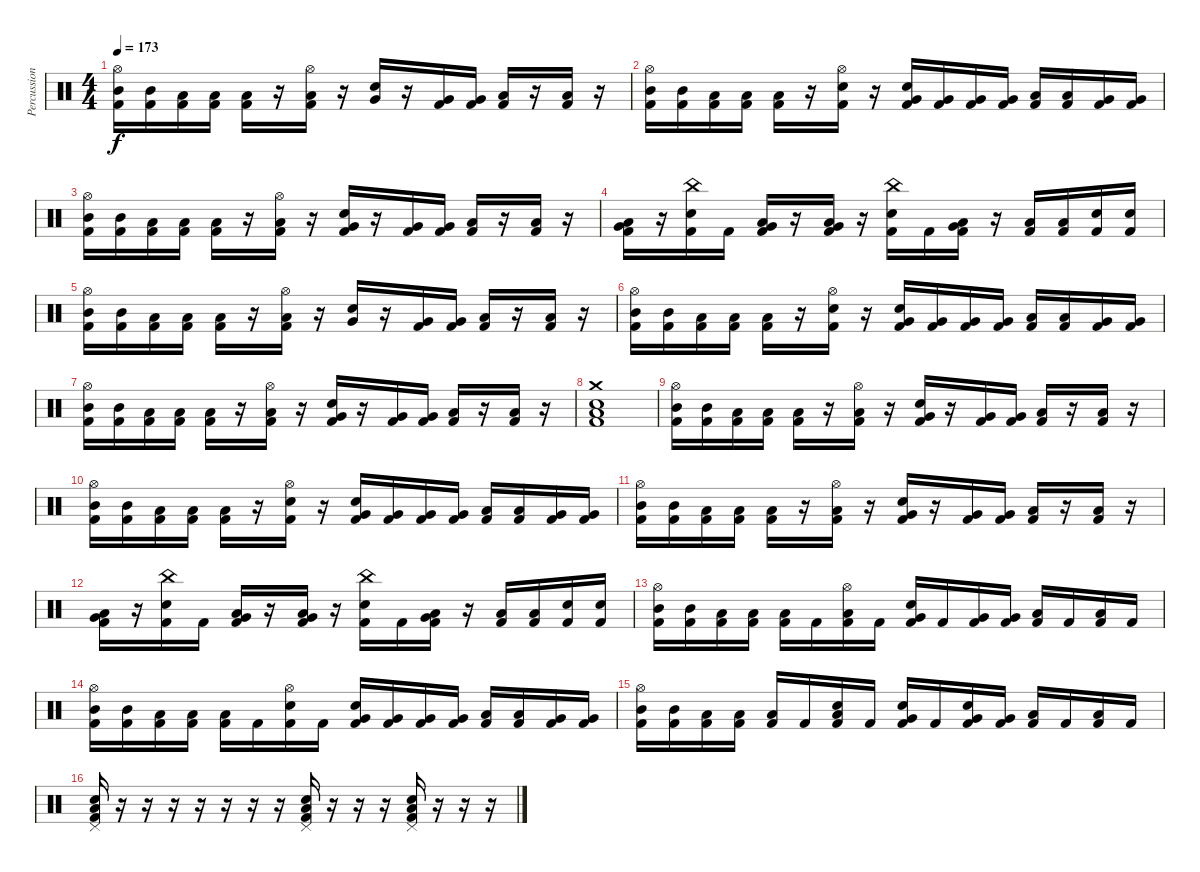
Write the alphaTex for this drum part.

\track ("Percussion" "Percussion") {instrument percussion}
\staff {score}
\articulation defaults
\ts (4 4)
\tempo 173
\clef neutral
\ks c
("Hi-Hat (open)" "Mid Tom (hit)" "Kick (hit) 2").16{dy f} ("Mid Tom (hit)" "Kick (hit) 2").16 ("Low Tom (hit)" "Kick (hit) 2").16 ("Low Tom (hit)" "Kick (hit) 2").16 ("Low Tom (hit)" "Kick (hit) 2").16 r.16 ("Hi-Hat (open)" "Low Tom (hit)" "Kick (hit) 2").16 r.16 ("Electric Snare (hit)" "Very Low Tom (hit)").16 r.16 ("Very Low Tom (hit)" "Kick (hit) 2").16 ("Very Low Tom (hit)" "Kick (hit) 2").16 ("Low Floor Tom (hit)" "Kick (hit) 2").16 r.16 ("Low Floor Tom (hit)" "Kick (hit) 2").16 r.16 |
("Hi-Hat (open)" "Mid Tom (hit)" "Kick (hit) 2").16 ("Mid Tom (hit)" "Kick (hit) 2").16 ("Low Tom (hit)" "Kick (hit) 2").16 ("Low Tom (hit)" "Kick (hit) 2").16 ("Low Tom (hit)" "Kick (hit) 2").16 r.16 ("Hi-Hat (open)" "Electric Snare (hit)" "Kick (hit) 2").16 r.16 ("Electric Snare (hit)" "Very Low Tom (hit)" "Kick (hit) 2").16 ("Very Low Tom (hit)" "Kick (hit) 2").16 ("Very Low Tom (hit)" "Kick (hit) 2").16 ("Very Low Tom (hit)" "Kick (hit) 2").16 ("Low Tom (hit)" "Kick (hit) 2").16 ("Low Tom (hit)" "Kick (hit) 2").16 ("Very Low Tom (hit)" "Kick (hit) 2").16 ("Very Low Tom (hit)" "Kick (hit) 2").16 |
("Hi-Hat (open)" "Mid Tom (hit)" "Kick (hit) 2").16 ("Mid Tom (hit)" "Kick (hit) 2").16 ("Low Tom (hit)" "Kick (hit) 2").16 ("Low Tom (hit)" "Kick (hit) 2").16 ("Low Tom (hit)" "Kick (hit) 2").16 r.16 ("Hi-Hat (open)" "Low Tom (hit)" "Kick (hit) 2").16 r.16 ("Electric Snare (hit)" "Very Low Tom (hit)" "Kick (hit) 2").16 r.16 ("Very Low Tom (hit)" "Kick (hit) 2").16 ("Very Low Tom (hit)" "Kick (hit) 2").16 ("Low Floor Tom (hit)" "Kick (hit) 2").16 r.16 ("Low Floor Tom (hit)" "Kick (hit) 2").16 r.16 |
("Very Low Tom (hit)" "Low Floor Tom (hit)" "Kick (hit) 2").16 r.16 ("China (hit)" "Electric Snare (hit)" "Kick (hit) 2").16 "Kick (hit) 2".16 ("Very Low Tom (hit)" "Low Floor Tom (hit)" "Kick (hit) 2").16 r.16 ("Very Low Tom (hit)" "Low Floor Tom (hit)" "Kick (hit) 2").16 r.16 ("China (hit)" "Electric Snare (hit)" "Kick (hit) 2").16 "Kick (hit) 2".16 ("Very Low Tom (hit)" "Low Floor Tom (hit)" "Kick (hit) 2").16 r.16 ("Low Floor Tom (hit)" "Kick (hit) 2").16 ("Low Floor Tom (hit)" "Kick (hit) 2").16 ("Electric Snare (hit)" "Kick (hit) 2").16 ("Electric Snare (hit)" "Kick (hit) 2").16 |
("Hi-Hat (open)" "Mid Tom (hit)" "Kick (hit) 2").16 ("Mid Tom (hit)" "Kick (hit) 2").16 ("Low Tom (hit)" "Kick (hit) 2").16 ("Low Tom (hit)" "Kick (hit) 2").16 ("Low Tom (hit)" "Kick (hit) 2").16 r.16 ("Hi-Hat (open)" "Low Tom (hit)" "Kick (hit) 2").16 r.16 ("Electric Snare (hit)" "Very Low Tom (hit)").16 r.16 ("Very Low Tom (hit)" "Kick (hit) 2").16 ("Very Low Tom (hit)" "Kick (hit) 2").16 ("Low Floor Tom (hit)" "Kick (hit) 2").16 r.16 ("Low Floor Tom (hit)" "Kick (hit) 2").16 r.16 |
("Hi-Hat (open)" "Mid Tom (hit)" "Kick (hit) 2").16 ("Mid Tom (hit)" "Kick (hit) 2").16 ("Low Tom (hit)" "Kick (hit) 2").16 ("Low Tom (hit)" "Kick (hit) 2").16 ("Low Tom (hit)" "Kick (hit) 2").16 r.16 ("Hi-Hat (open)" "Electric Snare (hit)" "Kick (hit) 2").16 r.16 ("Electric Snare (hit)" "Very Low Tom (hit)" "Kick (hit) 2").16 ("Very Low Tom (hit)" "Kick (hit) 2").16 ("Very Low Tom (hit)" "Kick (hit) 2").16 ("Very Low Tom (hit)" "Kick (hit) 2").16 ("Low Tom (hit)" "Kick (hit) 2").16 ("Low Tom (hit)" "Kick (hit) 2").16 ("Very Low Tom (hit)" "Kick (hit) 2").16 ("Very Low Tom (hit)" "Kick (hit) 2").16 |
("Hi-Hat (open)" "Mid Tom (hit)" "Kick (hit) 2").16 ("Mid Tom (hit)" "Kick (hit) 2").16 ("Low Tom (hit)" "Kick (hit) 2").16 ("Low Tom (hit)" "Kick (hit) 2").16 ("Low Tom (hit)" "Kick (hit) 2").16 r.16 ("Hi-Hat (open)" "Low Tom (hit)" "Kick (hit) 2").16 r.16 ("Electric Snare (hit)" "Very Low Tom (hit)" "Kick (hit) 2").16 r.16 ("Very Low Tom (hit)" "Kick (hit) 2").16 ("Very Low Tom (hit)" "Kick (hit) 2").16 ("Low Floor Tom (hit)" "Kick (hit) 2").16 r.16 ("Low Floor Tom (hit)" "Kick (hit) 2").16 r.16 |
("Crash medium (hit)" "Electric Snare (hit)" "Low Floor Tom (hit)" "Kick (hit) 2").1 |
("Hi-Hat (open)" "Mid Tom (hit)" "Kick (hit) 2").16 ("Mid Tom (hit)" "Kick (hit) 2").16 ("Low Tom (hit)" "Kick (hit) 2").16 ("Low Tom (hit)" "Kick (hit) 2").16 ("Low Tom (hit)" "Kick (hit) 2").16 r.16 ("Hi-Hat (open)" "Low Tom (hit)" "Kick (hit) 2").16 r.16 ("Electric Snare (hit)" "Very Low Tom (hit)" "Kick (hit) 2").16 r.16 ("Very Low Tom (hit)" "Kick (hit) 2").16 ("Very Low Tom (hit)" "Kick (hit) 2").16 ("Low Floor Tom (hit)" "Kick (hit) 2").16 r.16 ("Low Floor Tom (hit)" "Kick (hit) 2").16 r.16 |
("Hi-Hat (open)" "Mid Tom (hit)" "Kick (hit) 2").16 ("Mid Tom (hit)" "Kick (hit) 2").16 ("Low Tom (hit)" "Kick (hit) 2").16 ("Low Tom (hit)" "Kick (hit) 2").16 ("Low Tom (hit)" "Kick (hit) 2").16 r.16 ("Hi-Hat (open)" "Electric Snare (hit)" "Kick (hit) 2").16 r.16 ("Electric Snare (hit)" "Very Low Tom (hit)" "Kick (hit) 2").16 ("Very Low Tom (hit)" "Kick (hit) 2").16 ("Very Low Tom (hit)" "Kick (hit) 2").16 ("Very Low Tom (hit)" "Kick (hit) 2").16 ("Low Tom (hit)" "Kick (hit) 2").16 ("Low Tom (hit)" "Kick (hit) 2").16 ("Very Low Tom (hit)" "Kick (hit) 2").16 ("Very Low Tom (hit)" "Kick (hit) 2").16 |
("Hi-Hat (open)" "Mid Tom (hit)" "Kick (hit) 2").16 ("Mid Tom (hit)" "Kick (hit) 2").16 ("Low Tom (hit)" "Kick (hit) 2").16 ("Low Tom (hit)" "Kick (hit) 2").16 ("Low Tom (hit)" "Kick (hit) 2").16 r.16 ("Hi-Hat (open)" "Low Tom (hit)" "Kick (hit) 2").16 r.16 ("Electric Snare (hit)" "Very Low Tom (hit)" "Kick (hit) 2").16 r.16 ("Very Low Tom (hit)" "Kick (hit) 2").16 ("Very Low Tom (hit)" "Kick (hit) 2").16 ("Low Floor Tom (hit)" "Kick (hit) 2").16 r.16 ("Low Floor Tom (hit)" "Kick (hit) 2").16 r.16 |
("Very Low Tom (hit)" "Low Floor Tom (hit)" "Kick (hit) 2").16 r.16 ("China (hit)" "Electric Snare (hit)" "Kick (hit) 2").16 "Kick (hit) 2".16 ("Very Low Tom (hit)" "Low Floor Tom (hit)" "Kick (hit) 2").16 r.16 ("Very Low Tom (hit)" "Low Floor Tom (hit)" "Kick (hit) 2").16 r.16 ("China (hit)" "Electric Snare (hit)" "Kick (hit) 2").16 "Kick (hit) 2".16 ("Very Low Tom (hit)" "Low Floor Tom (hit)" "Kick (hit) 2").16 r.16 ("Low Floor Tom (hit)" "Kick (hit) 2").16 ("Low Floor Tom (hit)" "Kick (hit) 2").16 ("Electric Snare (hit)" "Kick (hit) 2").16 ("Electric Snare (hit)" "Kick (hit) 2").16 |
("Hi-Hat (open)" "Mid Tom (hit)" "Kick (hit) 2").16 ("Mid Tom (hit)" "Kick (hit) 2").16 ("Low Tom (hit)" "Kick (hit) 2").16 ("Low Tom (hit)" "Kick (hit) 2").16 ("Low Tom (hit)" "Kick (hit) 2").16 "Kick (hit) 2".16 ("Hi-Hat (open)" "Low Tom (hit)" "Kick (hit) 2").16 "Kick (hit) 2".16 ("Electric Snare (hit)" "Very Low Tom (hit)" "Kick (hit) 2").16 "Kick (hit) 2".16 ("Very Low Tom (hit)" "Kick (hit) 2").16 ("Very Low Tom (hit)" "Kick (hit) 2").16 ("Low Floor Tom (hit)" "Kick (hit) 2").16 "Kick (hit) 2".16 ("Low Floor Tom (hit)" "Kick (hit) 2").16 "Kick (hit) 2".16 |
("Hi-Hat (open)" "Mid Tom (hit)" "Kick (hit) 2").16 ("Mid Tom (hit)" "Kick (hit) 2").16 ("Low Tom (hit)" "Kick (hit) 2").16 ("Low Tom (hit)" "Kick (hit) 2").16 ("Low Tom (hit)" "Kick (hit) 2").16 "Kick (hit) 2".16 ("Hi-Hat (open)" "Electric Snare (hit)" "Kick (hit) 2").16 "Kick (hit) 2".16 ("Electric Snare (hit)" "Very Low Tom (hit)" "Kick (hit) 2").16 ("Very Low Tom (hit)" "Kick (hit) 2").16 ("Very Low Tom (hit)" "Kick (hit) 2").16 ("Very Low Tom (hit)" "Kick (hit) 2").16 ("Low Tom (hit)" "Kick (hit) 2").16 ("Low Tom (hit)" "Kick (hit) 2").16 ("Very Low Tom (hit)" "Kick (hit) 2").16 ("Very Low Tom (hit)" "Kick (hit) 2").16 |
("Hi-Hat (open)" "Mid Tom (hit)" "Kick (hit) 2").16 ("Mid Tom (hit)" "Kick (hit) 2").16 ("Low Tom (hit)" "Kick (hit) 2").16 ("Low Tom (hit)" "Kick (hit) 2").16 ("Low Tom (hit)" "Kick (hit) 2").16 "Kick (hit) 2".16 ("Electric Snare (hit)" "Low Tom (hit)" "Kick (hit) 2").16 "Kick (hit) 2".16 ("Electric Snare (hit)" "Very Low Tom (hit)" "Kick (hit) 2").16 "Kick (hit) 2".16 ("Electric Snare (hit)" "Very Low Tom (hit)" "Kick (hit) 2").16 ("Very Low Tom (hit)" "Kick (hit) 2").16 ("Low Floor Tom (hit)" "Kick (hit) 2").16 "Kick (hit) 2".16 ("Low Floor Tom (hit)" "Kick (hit) 2").16 "Kick (hit) 2".16 |
("Electric Snare (hit)" "Low Floor Tom (hit)" "Pedal Hi-Hat (hit)" "Kick (hit) 2").16 r.16 r.16 r.16 r.16 r.16 r.16 r.16 ("Electric Snare (hit)" "Low Floor Tom (hit)" "Pedal Hi-Hat (hit)" "Kick (hit) 2").16 r.16 r.16 r.16 ("Electric Snare (hit)" "Low Floor Tom (hit)" "Pedal Hi-Hat (hit)" "Kick (hit) 2").16 r.16 r.16 r.16
